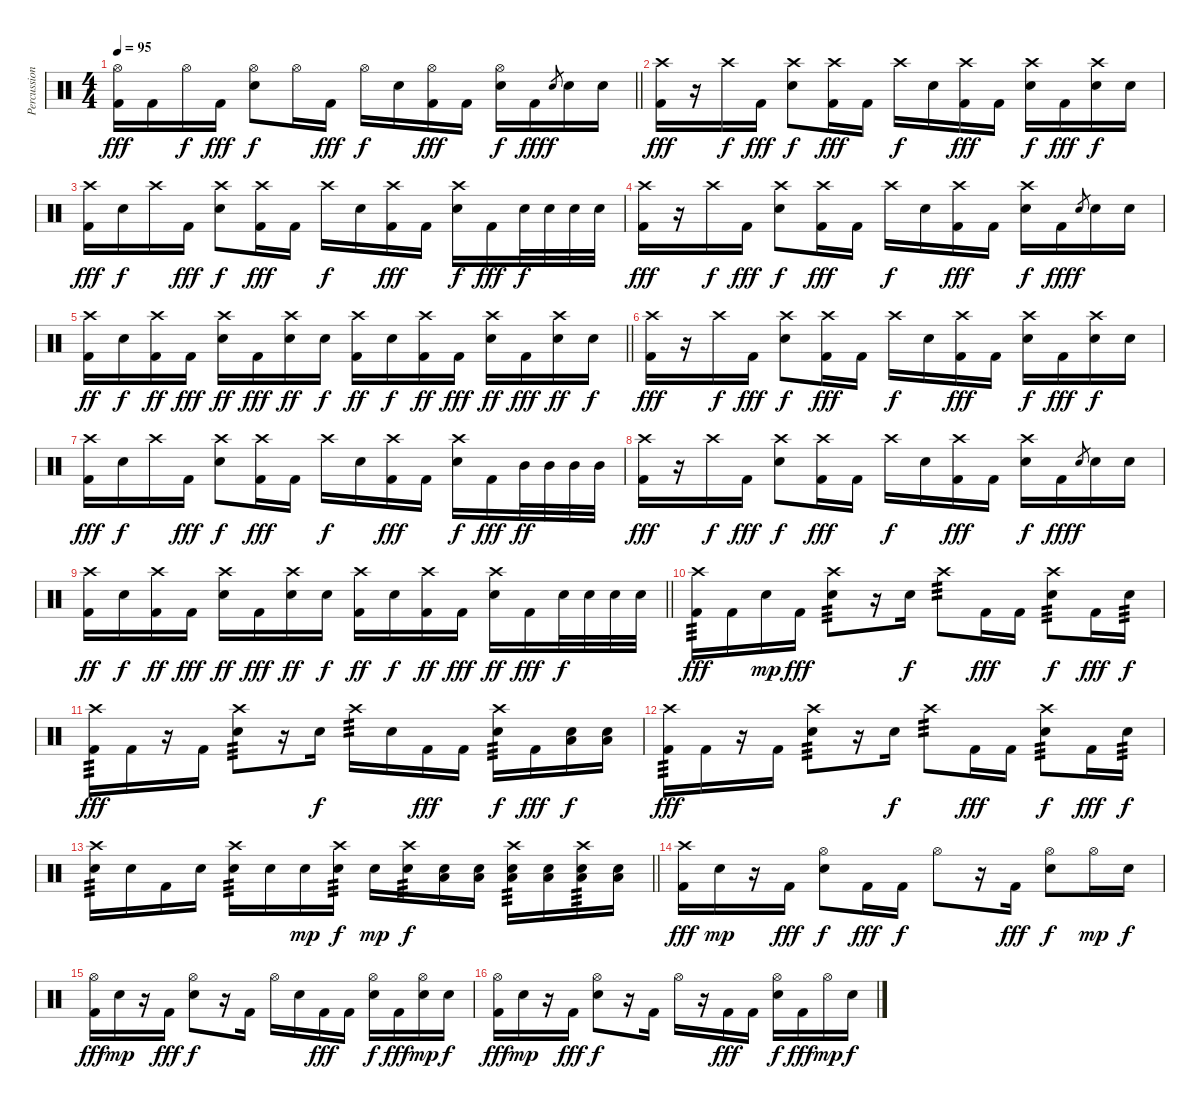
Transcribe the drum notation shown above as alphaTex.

\track ("Percussions" "Percussion") {instrument percussion}
\staff {score}
\articulation defaults
\ts (4 4)
\tempo 95
\clef neutral
\barLineRight lightlight
\ks c
("Kick (hit) 2" "Hi-Hat (open)").16{dy fff} "Kick (hit) 2".16 "Hi-Hat (open)".16{dy f} "Kick (hit) 2".16{dy fff} ("Electric Snare (hit)" "Hi-Hat (open)").8{dy f} "Hi-Hat (open)".16 "Kick (hit) 2".16{dy fff} "Hi-Hat (open)".16{dy f} "Electric Snare (hit)".16 ("Kick (hit) 2" "Hi-Hat (open)").16{dy fff} "Kick (hit) 2".16 ("Electric Snare (hit)" "Hi-Hat (open)").16{dy f} "Kick (hit) 2".16{dy fff} "Electric Snare (hit)".8{gr dy f} "Electric Snare (hit)".16 "Electric Snare (hit)".16 |
("Kick (hit) 2" "Crash high (hit)").16{dy fff} r.16 "Crash high (hit)".16{dy f} "Kick (hit) 2".16{dy fff} ("Electric Snare (hit)" "Crash high (hit)").8{dy f} ("Kick (hit) 2" "Crash high (hit)").16{dy fff} "Kick (hit) 2".16 "Crash high (hit)".16{dy f} "Electric Snare (hit)".16 ("Kick (hit) 2" "Crash high (hit)").16{dy fff} "Kick (hit) 2".16 ("Electric Snare (hit)" "Crash high (hit)").16{dy f} "Kick (hit) 2".16{dy fff} ("Electric Snare (hit)" "Crash high (hit)").16{dy f} "Electric Snare (hit)".16 |
("Kick (hit) 2" "Crash high (hit)").16{dy fff} "Electric Snare (hit)".16{dy f} "Crash high (hit)".16 "Kick (hit) 2".16{dy fff} ("Electric Snare (hit)" "Crash high (hit)").8{dy f} ("Kick (hit) 2" "Crash high (hit)").16{dy fff} "Kick (hit) 2".16 "Crash high (hit)".16{dy f} "Electric Snare (hit)".16 ("Kick (hit) 2" "Crash high (hit)").16{dy fff} "Kick (hit) 2".16 ("Electric Snare (hit)" "Crash high (hit)").16{dy f} "Kick (hit) 2".16{dy fff} "Electric Snare (hit)".32{dy f} "Electric Snare (hit)".32 "Electric Snare (hit)".32 "Electric Snare (hit)".32 |
("Kick (hit) 2" "Crash high (hit)").16{dy fff} r.16 "Crash high (hit)".16{dy f} "Kick (hit) 2".16{dy fff} ("Electric Snare (hit)" "Crash high (hit)").8{dy f} ("Kick (hit) 2" "Crash high (hit)").16{dy fff} "Kick (hit) 2".16 "Crash high (hit)".16{dy f} "Electric Snare (hit)".16 ("Kick (hit) 2" "Crash high (hit)").16{dy fff} "Kick (hit) 2".16 ("Electric Snare (hit)" "Crash high (hit)").16{dy f} "Kick (hit) 2".16{dy fff} "Electric Snare (hit)".8{gr dy f} "Electric Snare (hit)".16 "Electric Snare (hit)".16 |
\barLineRight lightlight
("Kick (hit) 2" "Crash high (hit)").16{dy ff} "Electric Snare (hit)".16{dy f} ("Kick (hit) 2" "Crash high (hit)").16{dy ff} "Kick (hit) 2".16{dy fff} ("Electric Snare (hit)" "Crash high (hit)").16{dy ff} "Kick (hit) 2".16{dy fff} ("Electric Snare (hit)" "Crash high (hit)").16{dy ff} "Electric Snare (hit)".16{dy f} ("Kick (hit) 2" "Crash high (hit)").16{dy ff} "Electric Snare (hit)".16{dy f} ("Kick (hit) 2" "Crash high (hit)").16{dy ff} "Kick (hit) 2".16{dy fff} ("Electric Snare (hit)" "Crash high (hit)").16{dy ff} "Kick (hit) 2".16{dy fff} ("Electric Snare (hit)" "Crash high (hit)").16{dy ff} "Electric Snare (hit)".16{dy f} |
("Kick (hit) 2" "Crash high (hit)").16{dy fff} r.16 "Crash high (hit)".16{dy f} "Kick (hit) 2".16{dy fff} ("Electric Snare (hit)" "Crash high (hit)").8{dy f} ("Kick (hit) 2" "Crash high (hit)").16{dy fff} "Kick (hit) 2".16 "Crash high (hit)".16{dy f} "Electric Snare (hit)".16 ("Kick (hit) 2" "Crash high (hit)").16{dy fff} "Kick (hit) 2".16 ("Electric Snare (hit)" "Crash high (hit)").16{dy f} "Kick (hit) 2".16{dy fff} ("Electric Snare (hit)" "Crash high (hit)").16{dy f} "Electric Snare (hit)".16 |
("Kick (hit) 2" "Crash high (hit)").16{dy fff} "Electric Snare (hit)".16{dy f} "Crash high (hit)".16 "Kick (hit) 2".16{dy fff} ("Electric Snare (hit)" "Crash high (hit)").8{dy f} ("Kick (hit) 2" "Crash high (hit)").16{dy fff} "Kick (hit) 2".16 "Crash high (hit)".16{dy f} "Electric Snare (hit)".16 ("Kick (hit) 2" "Crash high (hit)").16{dy fff} "Kick (hit) 2".16 ("Electric Snare (hit)" "Crash high (hit)").16{dy f} "Kick (hit) 2".16{dy fff} "Mid Tom (hit)".32{dy ff} "Mid Tom (hit)".32 "Mid Tom (hit)".32 "Mid Tom (hit)".32 |
("Kick (hit) 2" "Crash high (hit)").16{dy fff} r.16 "Crash high (hit)".16{dy f} "Kick (hit) 2".16{dy fff} ("Electric Snare (hit)" "Crash high (hit)").8{dy f} ("Kick (hit) 2" "Crash high (hit)").16{dy fff} "Kick (hit) 2".16 "Crash high (hit)".16{dy f} "Electric Snare (hit)".16 ("Kick (hit) 2" "Crash high (hit)").16{dy fff} "Kick (hit) 2".16 ("Electric Snare (hit)" "Crash high (hit)").16{dy f} "Kick (hit) 2".16{dy fff} "Electric Snare (hit)".8{gr dy f} "Electric Snare (hit)".16 "Electric Snare (hit)".16 |
\barLineRight lightlight
("Kick (hit) 2" "Crash high (hit)").16{dy ff} "Electric Snare (hit)".16{dy f} ("Kick (hit) 2" "Crash high (hit)").16{dy ff} "Kick (hit) 2".16{dy fff} ("Electric Snare (hit)" "Crash high (hit)").16{dy ff} "Kick (hit) 2".16{dy fff} ("Electric Snare (hit)" "Crash high (hit)").16{dy ff} "Electric Snare (hit)".16{dy f} ("Kick (hit) 2" "Crash high (hit)").16{dy ff} "Electric Snare (hit)".16{dy f} ("Kick (hit) 2" "Crash high (hit)").16{dy ff} "Kick (hit) 2".16{dy fff} ("Electric Snare (hit)" "Crash high (hit)").16{dy ff} "Kick (hit) 2".16{dy fff} "Electric Snare (hit)".32{dy f} "Electric Snare (hit)".32 "Electric Snare (hit)".32 "Electric Snare (hit)".32 |
("Kick (hit) 2" "Crash high (hit)").16{tp 3 dy fff volume 10 balance 14} "Kick (hit) 2".16 "Snare (hit) 2".16{dy mp} "Kick (hit) 2".16{dy fff} ("Snare (hit) 2" "Crash high (hit)").8{tp 3} r.16 "Snare (hit) 2".16{dy f} "Crash high (hit)".8{tp 3} "Kick (hit) 2".16{dy fff} "Kick (hit) 2".16 ("Snare (hit) 2" "Crash high (hit)").8{tp 3 dy f} "Kick (hit) 2".16{dy fff} "Snare (hit) 2".16{tp 3 dy f} |
("Kick (hit) 2" "Crash high (hit)").16{tp 3 dy fff volume 10 balance 14} "Kick (hit) 2".16 r.16 "Kick (hit) 2".16 ("Snare (hit) 2" "Crash high (hit)").8{tp 3} r.16 "Snare (hit) 2".16{dy f} "Crash high (hit)".16{tp 3} "Snare (hit) 2".16 "Kick (hit) 2".16{dy fff} "Kick (hit) 2".16 ("Snare (hit) 2" "Crash high (hit)").16{tp 3 dy f} "Kick (hit) 2".16{dy fff} ("Snare (hit) 2" "Low Tom (hit)").16{dy f} ("Snare (hit) 2" "Low Tom (hit)").16 |
("Kick (hit) 2" "Crash high (hit)").16{tp 3 dy fff volume 10 balance 14} "Kick (hit) 2".16 r.16 "Kick (hit) 2".16 ("Snare (hit) 2" "Crash high (hit)").8{tp 3} r.16 "Snare (hit) 2".16{dy f} "Crash high (hit)".8{tp 3} "Kick (hit) 2".16{dy fff} "Kick (hit) 2".16 ("Snare (hit) 2" "Crash high (hit)").8{tp 3 dy f} "Kick (hit) 2".16{dy fff} "Snare (hit) 2".16{tp 3 dy f} |
\barLineRight lightlight
("Snare (hit) 2" "Crash high (hit)").16{tp 3} "Snare (hit) 2".16 "Kick (hit) 2".16 "Snare (hit) 2".16 ("Snare (hit) 2" "Crash high (hit)").16{tp 3} "Snare (hit) 2".16 "Snare (hit) 2".16{dy mp} ("Snare (hit) 2" "Crash high (hit)").16{tp 3 dy f} "Snare (hit) 2".16{dy mp} ("Crash high (hit)" "Snare (hit) 2").16{tp 3 dy f} ("Low Tom (hit)" "Snare (hit) 2").16 ("Low Tom (hit)" "Snare (hit) 2").16 ("Crash high (hit)" "Low Tom (hit)" "Snare (hit) 2").16{tp 3} ("Low Tom (hit)" "Snare (hit) 2").16 ("Crash high (hit)" "Low Tom (hit)" "Snare (hit) 2").16{tp 3} ("Low Tom (hit)" "Snare (hit) 2").16 |
("Kick (hit) 2" "Crash high (hit)").16{dy fff volume 15 balance 8} "Electric Snare (hit)".16{dy mp} r.16 "Kick (hit) 2".16{dy fff} ("Electric Snare (hit)" "Hi-Hat (open)").8{dy f} "Kick (hit) 2".16{dy fff} "Kick (hit) 2".16{dy f} "Hi-Hat (open)".8 r.16 "Kick (hit) 2".16{dy fff} ("Electric Snare (hit)" "Hi-Hat (open)").8{dy f} "Hi-Hat (open)".16{dy mp} "Electric Snare (hit)".16{dy f} |
("Kick (hit) 2" "Hi-Hat (open)").16{dy fff volume 15 balance 8} "Electric Snare (hit)".16{dy mp} r.16 "Kick (hit) 2".16{dy fff} ("Electric Snare (hit)" "Hi-Hat (open)").8{dy f} r.16 "Kick (hit) 2".16 "Hi-Hat (open)".16 "Electric Snare (hit)".16 "Kick (hit) 2".16{dy fff} "Kick (hit) 2".16 ("Electric Snare (hit)" "Hi-Hat (open)").16{dy f} "Kick (hit) 2".16{dy fff} ("Hi-Hat (open)" "Electric Snare (hit)").16{dy mp} "Electric Snare (hit)".16{dy f} |
("Kick (hit) 2" "Hi-Hat (open)").16{dy fff volume 15 balance 8} "Electric Snare (hit)".16{dy mp} r.16 "Kick (hit) 2".16{dy fff} ("Electric Snare (hit)" "Hi-Hat (open)").8{dy f} r.16 "Kick (hit) 2".16 "Hi-Hat (open)".16 r.16 "Kick (hit) 2".16{dy fff} "Kick (hit) 2".16 ("Electric Snare (hit)" "Hi-Hat (open)").16{dy f} "Kick (hit) 2".16{dy fff} "Hi-Hat (open)".16{dy mp} "Electric Snare (hit)".16{dy f}
